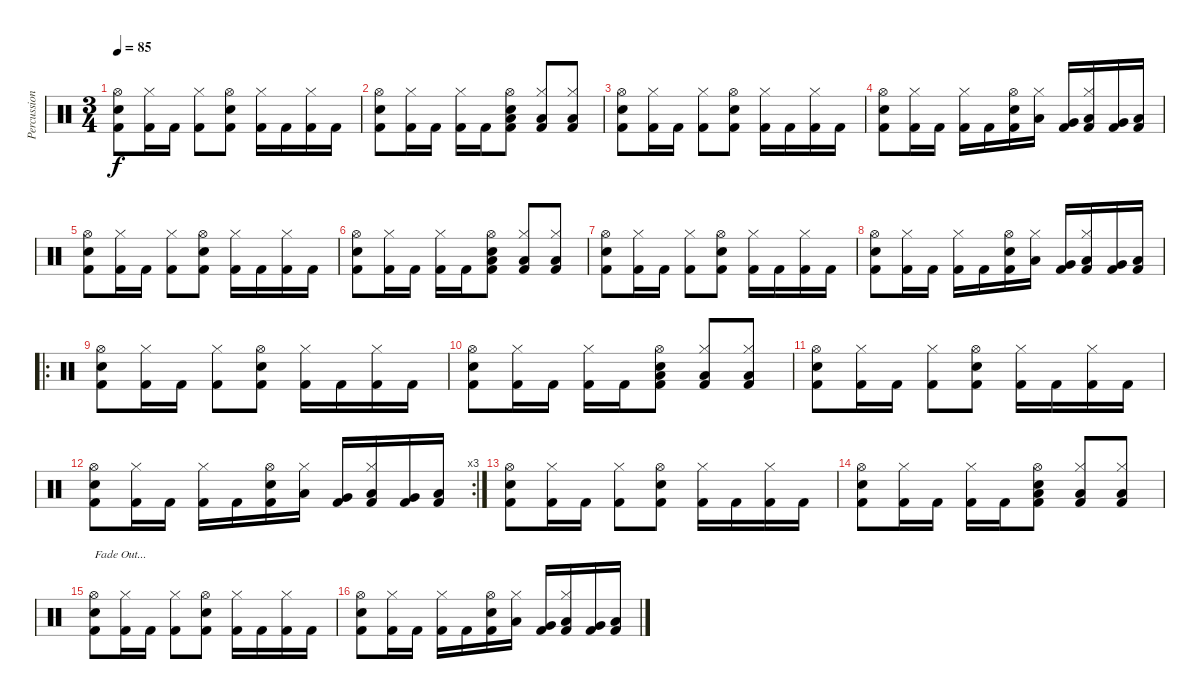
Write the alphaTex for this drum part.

\track ("Percussion" "Percussion") {instrument percussion}
\staff {score}
\articulation defaults
\ts (3 4)
\tempo 85
\clef neutral
\ks c
("Kick (hit) 2" "Snare (hit) 2" "Hi-Hat (open)").8{dy f} ("Kick (hit) 2" "Hi-Hat (closed)").16 "Kick (hit) 2".16 ("Kick (hit) 2" "Hi-Hat (closed)").8 ("Kick (hit) 2" "Snare (hit) 2" "Hi-Hat (open)").8 ("Kick (hit) 2" "Hi-Hat (closed)").16 "Kick (hit) 2".16 ("Kick (hit) 2" "Hi-Hat (closed)").16 "Kick (hit) 2".16 |
("Kick (hit) 2" "Snare (hit) 2" "Hi-Hat (open)").8 ("Kick (hit) 2" "Hi-Hat (closed)").16 "Kick (hit) 2".16 ("Kick (hit) 2" "Hi-Hat (closed)").16 "Kick (hit) 2".16 ("Kick (hit) 2" "Snare (hit) 2" "Hi-Hat (open)" "Low Tom (hit)").8 ("Kick (hit) 2" "Hi-Hat (closed)" "Low Tom (hit)").8 ("Kick (hit) 2" "Hi-Hat (closed)" "Low Tom (hit)").8 |
("Kick (hit) 2" "Snare (hit) 2" "Hi-Hat (open)").8 ("Kick (hit) 2" "Hi-Hat (closed)").16 "Kick (hit) 2".16 ("Kick (hit) 2" "Hi-Hat (closed)").8 ("Kick (hit) 2" "Snare (hit) 2" "Hi-Hat (open)").8 ("Kick (hit) 2" "Hi-Hat (closed)").16 "Kick (hit) 2".16 ("Kick (hit) 2" "Hi-Hat (closed)").16 "Kick (hit) 2".16 |
("Kick (hit) 2" "Snare (hit) 2" "Hi-Hat (open)").8 ("Kick (hit) 2" "Hi-Hat (closed)").16 "Kick (hit) 2".16 ("Kick (hit) 2" "Hi-Hat (closed)").16 "Kick (hit) 2".16 ("Kick (hit) 2" "Snare (hit) 2" "Hi-Hat (open)").16 ("Low Tom (hit)" "Hi-Hat (closed)").16 ("Kick (hit) 2" "Very Low Tom (hit)").16 ("Kick (hit) 2" "Low Floor Tom (hit)" "Hi-Hat (closed)").16 ("Kick (hit) 2" "Very Low Tom (hit)").16 ("Kick (hit) 2" "Low Tom (hit)").16 |
("Kick (hit) 2" "Snare (hit) 2" "Hi-Hat (open)").8 ("Kick (hit) 2" "Hi-Hat (closed)").16 "Kick (hit) 2".16 ("Kick (hit) 2" "Hi-Hat (closed)").8 ("Kick (hit) 2" "Snare (hit) 2" "Hi-Hat (open)").8 ("Kick (hit) 2" "Hi-Hat (closed)").16 "Kick (hit) 2".16 ("Kick (hit) 2" "Hi-Hat (closed)").16 "Kick (hit) 2".16 |
("Kick (hit) 2" "Snare (hit) 2" "Hi-Hat (open)").8 ("Kick (hit) 2" "Hi-Hat (closed)").16 "Kick (hit) 2".16 ("Kick (hit) 2" "Hi-Hat (closed)").16 "Kick (hit) 2".16 ("Kick (hit) 2" "Snare (hit) 2" "Hi-Hat (open)" "Low Tom (hit)").8 ("Kick (hit) 2" "Hi-Hat (closed)" "Low Tom (hit)").8 ("Kick (hit) 2" "Hi-Hat (closed)" "Low Tom (hit)").8 |
("Kick (hit) 2" "Snare (hit) 2" "Hi-Hat (open)").8 ("Kick (hit) 2" "Hi-Hat (closed)").16 "Kick (hit) 2".16 ("Kick (hit) 2" "Hi-Hat (closed)").8 ("Kick (hit) 2" "Snare (hit) 2" "Hi-Hat (open)").8 ("Kick (hit) 2" "Hi-Hat (closed)").16 "Kick (hit) 2".16 ("Kick (hit) 2" "Hi-Hat (closed)").16 "Kick (hit) 2".16 |
("Kick (hit) 2" "Snare (hit) 2" "Hi-Hat (open)").8 ("Kick (hit) 2" "Hi-Hat (closed)").16 "Kick (hit) 2".16 ("Kick (hit) 2" "Hi-Hat (closed)").16 "Kick (hit) 2".16 ("Kick (hit) 2" "Snare (hit) 2" "Hi-Hat (open)").16 ("Low Tom (hit)" "Hi-Hat (closed)").16 ("Kick (hit) 2" "Very Low Tom (hit)").16 ("Kick (hit) 2" "Low Floor Tom (hit)" "Hi-Hat (closed)").16 ("Kick (hit) 2" "Very Low Tom (hit)").16 ("Kick (hit) 2" "Low Tom (hit)").16 |
\ro
("Kick (hit) 2" "Snare (hit) 2" "Hi-Hat (open)").8 ("Kick (hit) 2" "Hi-Hat (closed)").16 "Kick (hit) 2".16 ("Kick (hit) 2" "Hi-Hat (closed)").8 ("Kick (hit) 2" "Snare (hit) 2" "Hi-Hat (open)").8 ("Kick (hit) 2" "Hi-Hat (closed)").16 "Kick (hit) 2".16 ("Kick (hit) 2" "Hi-Hat (closed)").16 "Kick (hit) 2".16 |
("Kick (hit) 2" "Snare (hit) 2" "Hi-Hat (open)").8 ("Kick (hit) 2" "Hi-Hat (closed)").16 "Kick (hit) 2".16 ("Kick (hit) 2" "Hi-Hat (closed)").16 "Kick (hit) 2".16 ("Kick (hit) 2" "Snare (hit) 2" "Hi-Hat (open)" "Low Tom (hit)").8 ("Kick (hit) 2" "Hi-Hat (closed)" "Low Tom (hit)").8 ("Kick (hit) 2" "Hi-Hat (closed)" "Low Tom (hit)").8 |
("Kick (hit) 2" "Snare (hit) 2" "Hi-Hat (open)").8 ("Kick (hit) 2" "Hi-Hat (closed)").16 "Kick (hit) 2".16 ("Kick (hit) 2" "Hi-Hat (closed)").8 ("Kick (hit) 2" "Snare (hit) 2" "Hi-Hat (open)").8 ("Kick (hit) 2" "Hi-Hat (closed)").16 "Kick (hit) 2".16 ("Kick (hit) 2" "Hi-Hat (closed)").16 "Kick (hit) 2".16 |
\rc 3
("Kick (hit) 2" "Snare (hit) 2" "Hi-Hat (open)").8 ("Kick (hit) 2" "Hi-Hat (closed)").16 "Kick (hit) 2".16 ("Kick (hit) 2" "Hi-Hat (closed)").16 "Kick (hit) 2".16 ("Kick (hit) 2" "Snare (hit) 2" "Hi-Hat (open)").16 ("Low Tom (hit)" "Hi-Hat (closed)").16 ("Kick (hit) 2" "Very Low Tom (hit)").16 ("Kick (hit) 2" "Low Floor Tom (hit)" "Hi-Hat (closed)").16 ("Kick (hit) 2" "Very Low Tom (hit)").16 ("Kick (hit) 2" "Low Tom (hit)").16 |
("Kick (hit) 2" "Snare (hit) 2" "Hi-Hat (open)").8 ("Kick (hit) 2" "Hi-Hat (closed)").16 "Kick (hit) 2".16 ("Kick (hit) 2" "Hi-Hat (closed)").8 ("Kick (hit) 2" "Snare (hit) 2" "Hi-Hat (open)").8 ("Kick (hit) 2" "Hi-Hat (closed)").16 "Kick (hit) 2".16 ("Kick (hit) 2" "Hi-Hat (closed)").16 "Kick (hit) 2".16 |
("Kick (hit) 2" "Snare (hit) 2" "Hi-Hat (open)").8 ("Kick (hit) 2" "Hi-Hat (closed)").16 "Kick (hit) 2".16 ("Kick (hit) 2" "Hi-Hat (closed)").16 "Kick (hit) 2".16 ("Kick (hit) 2" "Snare (hit) 2" "Hi-Hat (open)" "Low Tom (hit)").8 ("Kick (hit) 2" "Hi-Hat (closed)" "Low Tom (hit)").8 ("Kick (hit) 2" "Hi-Hat (closed)" "Low Tom (hit)").8 |
("Kick (hit) 2" "Snare (hit) 2" "Hi-Hat (open)").8{txt "Fade Out..." volume 13} ("Kick (hit) 2" "Hi-Hat (closed)").16 "Kick (hit) 2".16 ("Kick (hit) 2" "Hi-Hat (closed)").8 ("Kick (hit) 2" "Snare (hit) 2" "Hi-Hat (open)").8{volume 12} ("Kick (hit) 2" "Hi-Hat (closed)").16 "Kick (hit) 2".16 ("Kick (hit) 2" "Hi-Hat (closed)").16 "Kick (hit) 2".16 |
("Kick (hit) 2" "Snare (hit) 2" "Hi-Hat (open)").8{volume 11} ("Kick (hit) 2" "Hi-Hat (closed)").16 "Kick (hit) 2".16 ("Kick (hit) 2" "Hi-Hat (closed)").16 "Kick (hit) 2".16 ("Kick (hit) 2" "Snare (hit) 2" "Hi-Hat (open)").16{volume 10} ("Low Tom (hit)" "Hi-Hat (closed)").16 ("Kick (hit) 2" "Very Low Tom (hit)").16 ("Kick (hit) 2" "Low Floor Tom (hit)" "Hi-Hat (closed)").16 ("Kick (hit) 2" "Very Low Tom (hit)").16 ("Kick (hit) 2" "Low Tom (hit)").16
